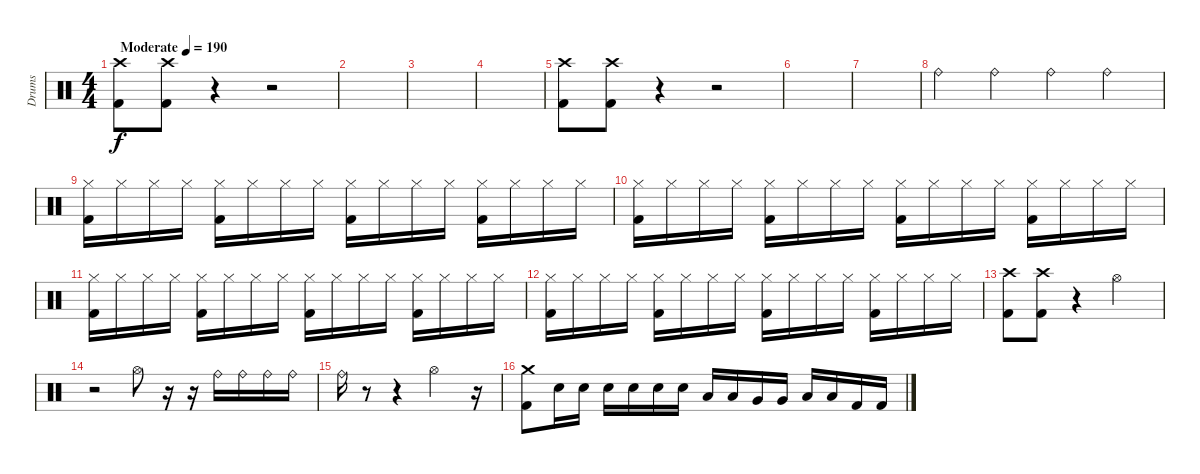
\track ("Drums" "Drums") {instrument percussion}
\staff {score}
\articulation defaults
\ts (4 4)
\tempo (190 "Moderate")
\clef neutral
\ks c
("Crash high (hit)" "Kick (hit) 2").8{dy f} ("Crash high (hit)" "Kick (hit) 2").8 r.4 r.2 |
|
|
|
("Crash high (hit)" "Kick (hit) 2").8 ("Crash high (hit)" "Kick (hit) 2").8 r.4 r.2 |
|
|
"Ride (bell)".4 "Ride (bell)".4 "Ride (bell)".4 "Ride (bell)".4 |
("Hi-Hat (closed)" "Kick (hit) 2").16 "Hi-Hat (closed)".16 "Hi-Hat (closed)".16 "Hi-Hat (closed)".16 ("Hi-Hat (closed)" "Kick (hit) 2").16 "Hi-Hat (closed)".16 "Hi-Hat (closed)".16 "Hi-Hat (closed)".16 ("Hi-Hat (closed)" "Kick (hit) 2").16 "Hi-Hat (closed)".16 "Hi-Hat (closed)".16 "Hi-Hat (closed)".16 ("Hi-Hat (closed)" "Kick (hit) 2").16 "Hi-Hat (closed)".16 "Hi-Hat (closed)".16 "Hi-Hat (closed)".16 |
("Hi-Hat (closed)" "Kick (hit) 2").16 "Hi-Hat (closed)".16 "Hi-Hat (closed)".16 "Hi-Hat (closed)".16 ("Hi-Hat (closed)" "Kick (hit) 2").16 "Hi-Hat (closed)".16 "Hi-Hat (closed)".16 "Hi-Hat (closed)".16 ("Hi-Hat (closed)" "Kick (hit) 2").16 "Hi-Hat (closed)".16 "Hi-Hat (closed)".16 "Hi-Hat (closed)".16 ("Hi-Hat (closed)" "Kick (hit) 2").16 "Hi-Hat (closed)".16 "Hi-Hat (closed)".16 "Hi-Hat (closed)".16 |
("Hi-Hat (closed)" "Kick (hit) 2").16 "Hi-Hat (closed)".16 "Hi-Hat (closed)".16 "Hi-Hat (closed)".16 ("Hi-Hat (closed)" "Kick (hit) 2").16 "Hi-Hat (closed)".16 "Hi-Hat (closed)".16 "Hi-Hat (closed)".16 ("Hi-Hat (closed)" "Kick (hit) 2").16 "Hi-Hat (closed)".16 "Hi-Hat (closed)".16 "Hi-Hat (closed)".16 ("Hi-Hat (closed)" "Kick (hit) 2").16 "Hi-Hat (closed)".16 "Hi-Hat (closed)".16 "Hi-Hat (closed)".16 |
("Hi-Hat (closed)" "Kick (hit) 2").16 "Hi-Hat (closed)".16 "Hi-Hat (closed)".16 "Hi-Hat (closed)".16 ("Hi-Hat (closed)" "Kick (hit) 2").16 "Hi-Hat (closed)".16 "Hi-Hat (closed)".16 "Hi-Hat (closed)".16 ("Hi-Hat (closed)" "Kick (hit) 2").16 "Hi-Hat (closed)".16 "Hi-Hat (closed)".16 "Hi-Hat (closed)".16 ("Hi-Hat (closed)" "Kick (hit) 2").16 "Hi-Hat (closed)".16 "Hi-Hat (closed)".16 "Hi-Hat (closed)".16 |
("Crash high (hit)" "Kick (hit) 2").8 ("Crash high (hit)" "Kick (hit) 2").8 r.4 "Hi-Hat (open)".2 |
r.2 "Hi-Hat (open)".8 r.16 r.16 "Ride (bell)".16 "Ride (bell)".16 "Ride (bell)".16 "Ride (bell)".16 |
"Ride (bell)".16 r.8 r.4 "Hi-Hat (open)".2 r.16 |
("Crash medium (hit)" "Kick (hit) 2").8 "Snare (hit) 2".16 "Snare (hit) 2".16 "Snare (hit) 2".16 "Snare (hit) 2".16 "Snare (hit) 2".16 "Snare (hit) 2".16 "Low Tom (hit)".16 "Low Tom (hit)".16 "Very Low Tom (hit)".16 "Very Low Tom (hit)".16 "Low Floor Tom (hit)".16 "Low Floor Tom (hit)".16 "Kick (hit) 2".16 "Kick (hit) 2".16
